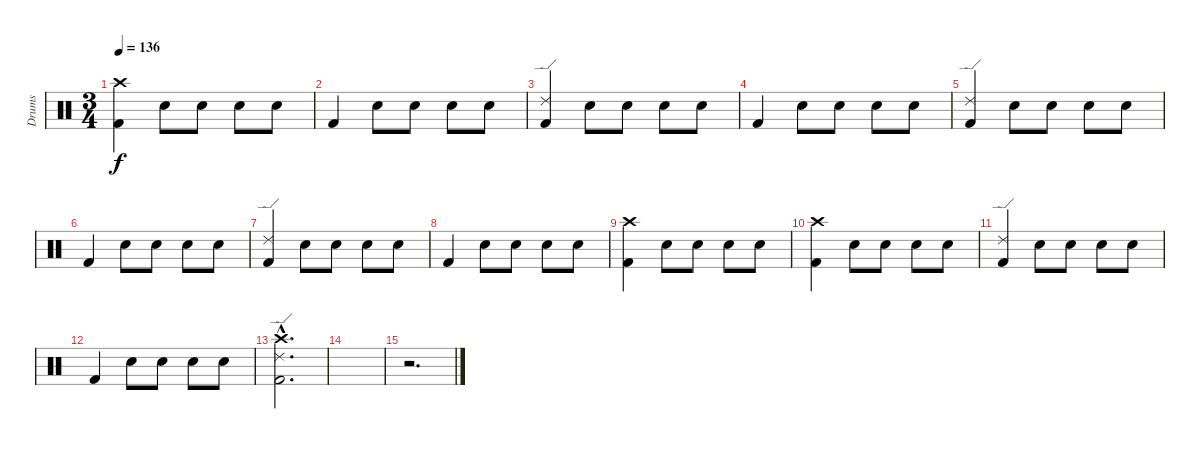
\track ("Drums" "Drums") {instrument percussion}
\staff {score}
\articulation defaults
\ts (3 4)
\tempo 136
\clef neutral
\ks aminor
("Crash high (hit)" "Kick (hit) 2").4{dy f} "Snare (hit) 2".8 "Snare (hit) 2".8 "Snare (hit) 2".8 "Snare (hit) 2".8 |
"Kick (hit) 2".4 "Snare (hit) 2".8 "Snare (hit) 2".8 "Snare (hit) 2".8 "Snare (hit) 2".8 |
("Ride (edge) 2" "Kick (hit) 2").4 "Snare (hit) 2".8 "Snare (hit) 2".8 "Snare (hit) 2".8 "Snare (hit) 2".8 |
"Kick (hit) 2".4 "Snare (hit) 2".8 "Snare (hit) 2".8 "Snare (hit) 2".8 "Snare (hit) 2".8 |
("Ride (edge) 2" "Kick (hit) 2").4 "Snare (hit) 2".8 "Snare (hit) 2".8 "Snare (hit) 2".8 "Snare (hit) 2".8 |
"Kick (hit) 2".4 "Snare (hit) 2".8 "Snare (hit) 2".8 "Snare (hit) 2".8 "Snare (hit) 2".8 |
("Ride (edge) 2" "Kick (hit) 2").4 "Snare (hit) 2".8 "Snare (hit) 2".8 "Snare (hit) 2".8 "Snare (hit) 2".8 |
"Kick (hit) 2".4 "Snare (hit) 2".8 "Snare (hit) 2".8 "Snare (hit) 2".8 "Snare (hit) 2".8 |
("Crash high (hit)" "Kick (hit) 2").4 "Snare (hit) 2".8 "Snare (hit) 2".8 "Snare (hit) 2".8 "Snare (hit) 2".8 |
("Crash high (hit)" "Kick (hit) 2").4 "Snare (hit) 2".8 "Snare (hit) 2".8 "Snare (hit) 2".8 "Snare (hit) 2".8 |
("Ride (edge) 2" "Kick (hit) 2").4 "Snare (hit) 2".8 "Snare (hit) 2".8 "Snare (hit) 2".8 "Snare (hit) 2".8 |
"Kick (hit) 2".4 "Snare (hit) 2".8 "Snare (hit) 2".8 "Snare (hit) 2".8 "Snare (hit) 2".8 |
("Ride (edge) 2"{hac} "Crash high (hit)"{hac} "Kick (hit) 2"{hac}).2{d} |
|
r.2{d}
